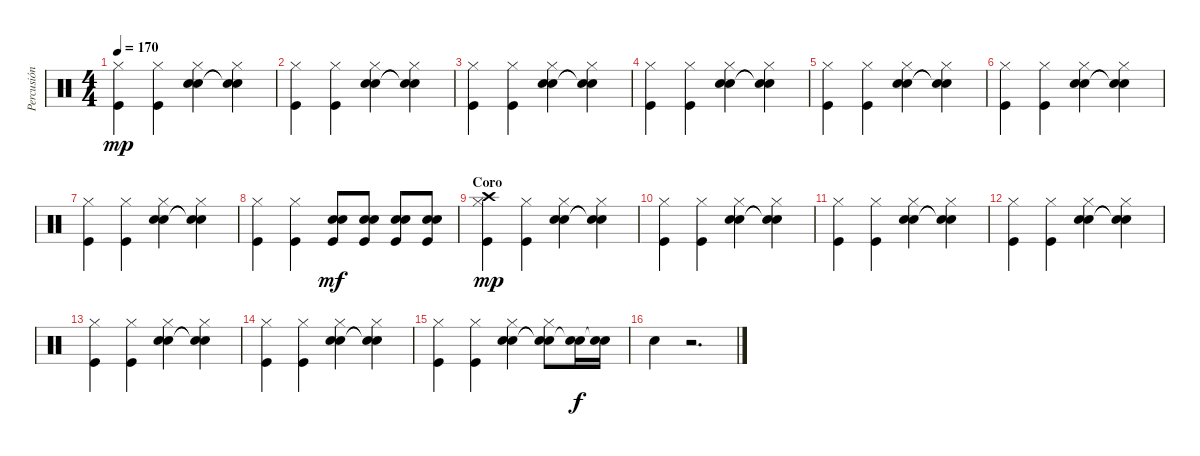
\track ("Percusión" "Percusión") {instrument percussion}
\staff {score}
\articulation defaults
\ts (4 4)
\tempo 170
\clef neutral
\ks c
("Kick (hit)" "Hi-Hat (closed)").4{dy mp} ("Kick (hit)" "Hi-Hat (closed)").4 ("Electric Snare (hit)" "Snare (hit) 2" "Hi-Hat (closed)").4 ("Snare (hit)"{t} "Snare (hit)"{t} "Hi-Hat (closed)").4 |
("Kick (hit)" "Hi-Hat (closed)").4 ("Kick (hit)" "Hi-Hat (closed)").4 ("Electric Snare (hit)" "Snare (hit) 2" "Hi-Hat (closed)").4 ("Snare (hit)"{t} "Snare (hit)"{t} "Hi-Hat (closed)").4 |
("Kick (hit)" "Hi-Hat (closed)").4 ("Kick (hit)" "Hi-Hat (closed)").4 ("Electric Snare (hit)" "Snare (hit) 2" "Hi-Hat (closed)").4 ("Snare (hit)"{t} "Snare (hit)"{t} "Hi-Hat (closed)").4 |
("Kick (hit)" "Hi-Hat (closed)").4 ("Kick (hit)" "Hi-Hat (closed)").4 ("Electric Snare (hit)" "Snare (hit) 2" "Hi-Hat (closed)").4 ("Snare (hit)"{t} "Snare (hit)"{t} "Hi-Hat (closed)").4 |
("Kick (hit)" "Hi-Hat (closed)").4 ("Kick (hit)" "Hi-Hat (closed)").4 ("Electric Snare (hit)" "Snare (hit) 2" "Hi-Hat (closed)").4 ("Snare (hit)"{t} "Snare (hit)"{t} "Hi-Hat (closed)").4 |
("Kick (hit)" "Hi-Hat (closed)").4 ("Kick (hit)" "Hi-Hat (closed)").4 ("Electric Snare (hit)" "Snare (hit) 2" "Hi-Hat (closed)").4 ("Snare (hit)"{t} "Snare (hit)"{t} "Hi-Hat (closed)").4 |
("Kick (hit)" "Hi-Hat (closed)").4 ("Kick (hit)" "Hi-Hat (closed)").4 ("Electric Snare (hit)" "Snare (hit) 2" "Hi-Hat (closed)").4 ("Snare (hit)"{t} "Snare (hit)"{t} "Hi-Hat (closed)").4 |
("Kick (hit)" "Hi-Hat (closed)").4 ("Kick (hit)" "Hi-Hat (closed)").4 ("Kick (hit)" "Electric Snare (hit)" "Snare (hit) 2").8{dy mf} ("Kick (hit)" "Electric Snare (hit)" "Snare (hit) 2").8 ("Kick (hit)" "Electric Snare (hit)" "Snare (hit) 2").8 ("Kick (hit)" "Electric Snare (hit)" "Snare (hit) 2").8 |
\section ("" "Coro")
("Kick (hit)" "Crash high (hit)" "Hi-Hat (closed)").4{dy mp} ("Kick (hit)" "Hi-Hat (closed)").4 ("Electric Snare (hit)" "Snare (hit) 2" "Hi-Hat (closed)").4 ("Snare (hit)"{t} "Snare (hit)"{t} "Hi-Hat (closed)").4 |
("Kick (hit)" "Hi-Hat (closed)").4 ("Kick (hit)" "Hi-Hat (closed)").4 ("Electric Snare (hit)" "Snare (hit) 2" "Hi-Hat (closed)").4 ("Snare (hit)"{t} "Snare (hit)"{t} "Hi-Hat (closed)").4 |
("Kick (hit)" "Hi-Hat (closed)").4 ("Kick (hit)" "Hi-Hat (closed)").4 ("Electric Snare (hit)" "Snare (hit) 2" "Hi-Hat (closed)").4 ("Snare (hit)"{t} "Snare (hit)"{t} "Hi-Hat (closed)").4 |
("Kick (hit)" "Hi-Hat (closed)").4 ("Kick (hit)" "Hi-Hat (closed)").4 ("Electric Snare (hit)" "Snare (hit) 2" "Hi-Hat (closed)").4 ("Snare (hit)"{t} "Snare (hit)"{t} "Hi-Hat (closed)").4 |
("Kick (hit)" "Hi-Hat (closed)").4 ("Kick (hit)" "Hi-Hat (closed)").4 ("Electric Snare (hit)" "Snare (hit) 2" "Hi-Hat (closed)").4 ("Snare (hit)"{t} "Snare (hit)"{t} "Hi-Hat (closed)").4 |
("Kick (hit)" "Hi-Hat (closed)").4 ("Kick (hit)" "Hi-Hat (closed)").4 ("Electric Snare (hit)" "Snare (hit) 2" "Hi-Hat (closed)").4 ("Snare (hit)"{t} "Snare (hit)"{t} "Hi-Hat (closed)").4 |
("Kick (hit)" "Hi-Hat (closed)").4 ("Kick (hit)" "Hi-Hat (closed)").4 ("Electric Snare (hit)" "Snare (hit) 2" "Hi-Hat (closed)").4 ("Snare (hit)"{t} "Snare (hit)"{t} "Hi-Hat (closed)").8 ("Electric Snare (hit)" "Snare (hit)"{t}).16{dy f} ("Electric Snare (hit)" "Snare (hit)"{t}).16 |
"Electric Snare (hit)".4 r.2{d}
